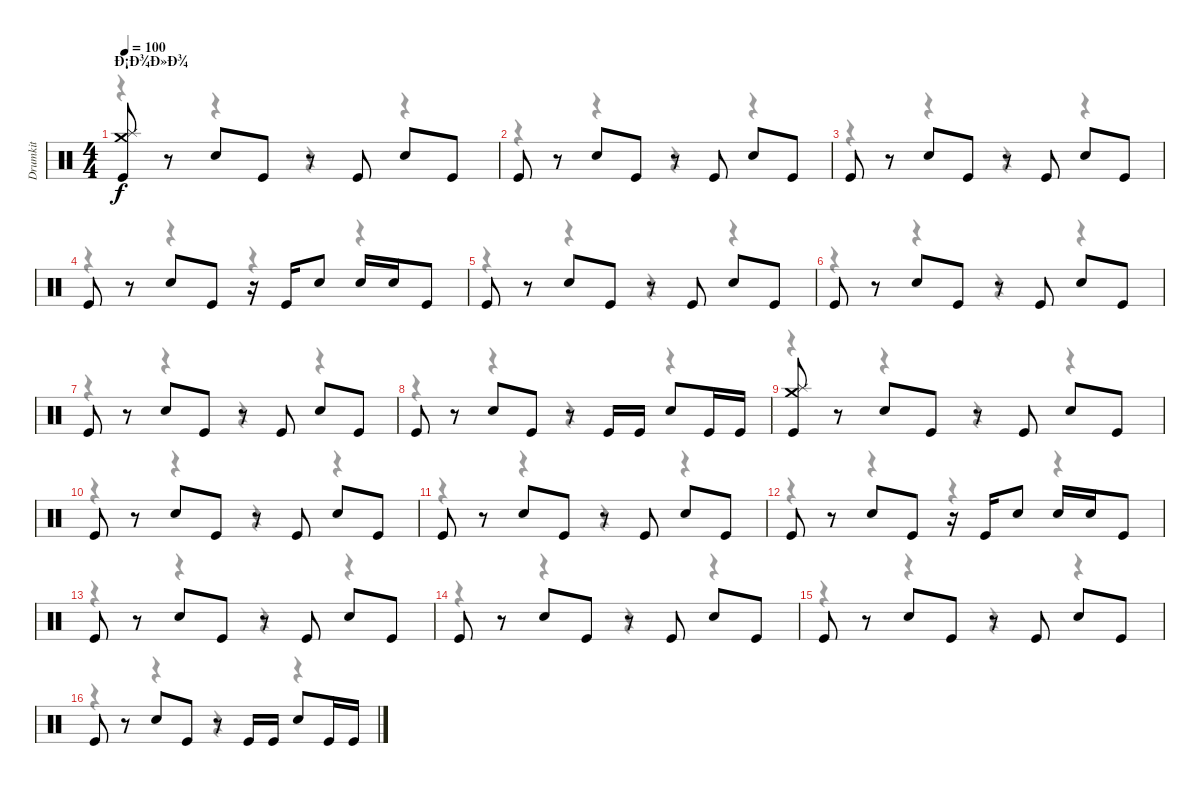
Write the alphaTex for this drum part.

\track ("Drumkit" "Drumkit") {instrument percussion}
\staff {score}
\articulation defaults
\voice
\ts (4 4)
\section ("" "Ð¡Ð¾Ð»Ð¾")
\tempo 100
\clef neutral
\ks c
("Kick (hit)" "Crash medium (hit)" "Splash (hit)").8{dy f} r.8 "Snare (hit) 2".8 "Kick (hit)".8 r.8 "Kick (hit)".8 "Snare (hit) 2".8 "Kick (hit)".8 |
"Kick (hit)".8 r.8 "Snare (hit) 2".8 "Kick (hit)".8 r.8 "Kick (hit)".8 "Snare (hit) 2".8 "Kick (hit)".8 |
"Kick (hit)".8 r.8 "Snare (hit) 2".8 "Kick (hit)".8 r.8 "Kick (hit)".8 "Snare (hit) 2".8 "Kick (hit)".8 |
"Kick (hit)".8 r.8 "Snare (hit) 2".8 "Kick (hit)".8 r.16 "Kick (hit)".16 "Snare (hit) 2".8 "Snare (hit) 2".16 "Snare (hit) 2".16 "Kick (hit)".8 |
"Kick (hit)".8 r.8 "Snare (hit) 2".8 "Kick (hit)".8 r.8 "Kick (hit)".8 "Snare (hit) 2".8 "Kick (hit)".8 |
"Kick (hit)".8 r.8 "Snare (hit) 2".8 "Kick (hit)".8 r.8 "Kick (hit)".8 "Snare (hit) 2".8 "Kick (hit)".8 |
"Kick (hit)".8 r.8 "Snare (hit) 2".8 "Kick (hit)".8 r.8 "Kick (hit)".8 "Snare (hit) 2".8 "Kick (hit)".8 |
"Kick (hit)".8 r.8 "Snare (hit) 2".8 "Kick (hit)".8 r.8 "Kick (hit)".16 "Kick (hit)".16 "Snare (hit) 2".8 "Kick (hit)".16 "Kick (hit)".16 |
("Kick (hit)" "Crash medium (hit)" "Splash (hit)").8 r.8 "Snare (hit) 2".8 "Kick (hit)".8 r.8 "Kick (hit)".8 "Snare (hit) 2".8 "Kick (hit)".8 |
"Kick (hit)".8 r.8 "Snare (hit) 2".8 "Kick (hit)".8 r.8 "Kick (hit)".8 "Snare (hit) 2".8 "Kick (hit)".8 |
"Kick (hit)".8 r.8 "Snare (hit) 2".8 "Kick (hit)".8 r.8 "Kick (hit)".8 "Snare (hit) 2".8 "Kick (hit)".8 |
"Kick (hit)".8 r.8 "Snare (hit) 2".8 "Kick (hit)".8 r.16 "Kick (hit)".16 "Snare (hit) 2".8 "Snare (hit) 2".16 "Snare (hit) 2".16 "Kick (hit)".8 |
"Kick (hit)".8 r.8 "Snare (hit) 2".8 "Kick (hit)".8 r.8 "Kick (hit)".8 "Snare (hit) 2".8 "Kick (hit)".8 |
"Kick (hit)".8 r.8 "Snare (hit) 2".8 "Kick (hit)".8 r.8 "Kick (hit)".8 "Snare (hit) 2".8 "Kick (hit)".8 |
"Kick (hit)".8 r.8 "Snare (hit) 2".8 "Kick (hit)".8 r.8 "Kick (hit)".8 "Snare (hit) 2".8 "Kick (hit)".8 |
"Kick (hit)".8 r.8 "Snare (hit) 2".8 "Kick (hit)".8 r.8 "Kick (hit)".16 "Kick (hit)".16 "Snare (hit) 2".8 "Kick (hit)".16 "Kick (hit)".16
\voice
\clef neutral
\ottava regular
\simile none
\ks c
r.4{dy f} r.4 r.4 r.4 |
r.4 r.4 r.4 r.4 |
r.4 r.4 r.4 r.4 |
r.4 r.4 r.4 r.4 |
r.4 r.4 r.4 r.4 |
r.4 r.4 r.4 r.4 |
r.4 r.4 r.4 r.4 |
r.4 r.4 r.4 r.4 |
r.4 r.4 r.4 r.4 |
r.4 r.4 r.4 r.4 |
r.4 r.4 r.4 r.4 |
r.4 r.4 r.4 r.4 |
r.4 r.4 r.4 r.4 |
r.4 r.4 r.4 r.4 |
r.4 r.4 r.4 r.4 |
r.4 r.4 r.4 r.4
